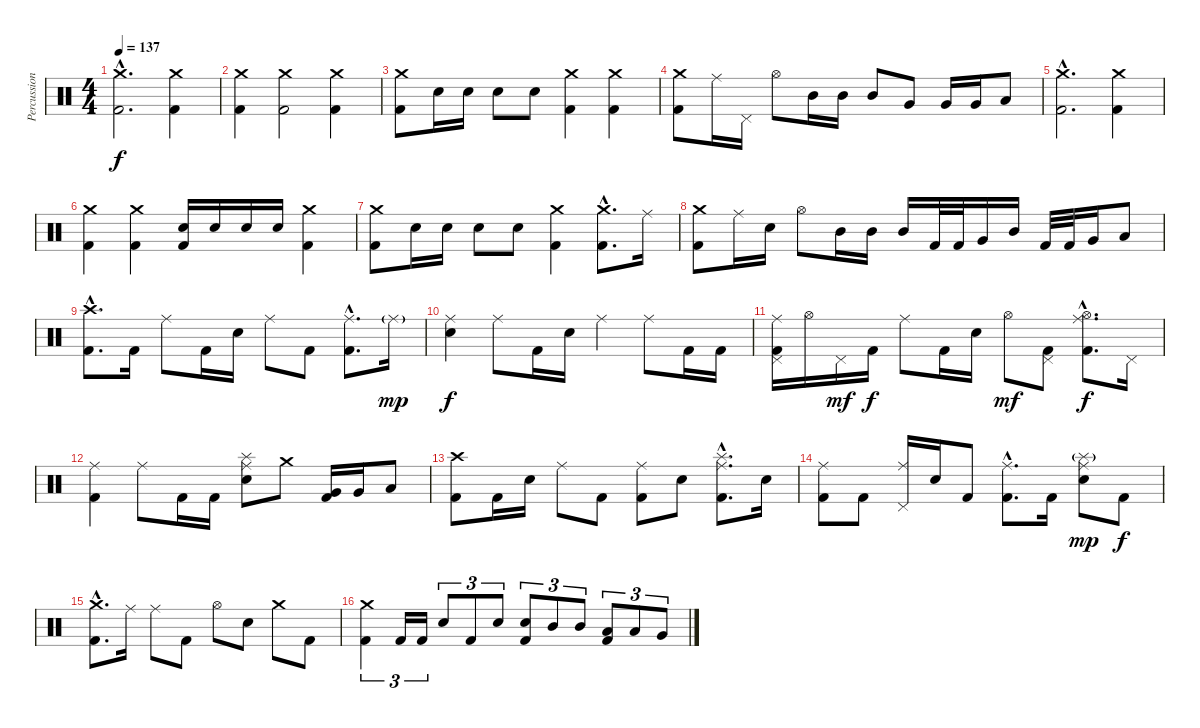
\track ("Percussion" "Percussion") {instrument percussion}
\staff {score}
\articulation defaults
\ts (4 4)
\tempo 137
\clef neutral
\ks c
("Crash medium (hit)"{hac} "Kick (hit) 2"{hac}).2{d dy f} ("Crash medium (hit)" "Kick (hit) 2").4 |
("Crash medium (hit)" "Kick (hit) 2").4 ("Crash medium (hit)" "Kick (hit) 2").2 ("Crash medium (hit)" "Kick (hit) 2").4 |
("Crash medium (hit)" "Kick (hit) 2").8 "Electric Snare (hit)".16 "Electric Snare (hit)".16 "Electric Snare (hit)".8 "Electric Snare (hit)".8 ("Crash medium (hit)" "Kick (hit) 2").4 ("Crash medium (hit)" "Kick (hit) 2").4 |
("Crash medium (hit)" "Kick (hit) 2").8 "Ride (middle)".16 "Pedal Hi-Hat (hit)".16 "Hi-Hat (open)".8 "Mid Tom (hit)".16 "Mid Tom (hit)".16 "Mid Tom (hit)".8 "Very Low Tom (hit)".8 "Very Low Tom (hit)".16 "Very Low Tom (hit)".16 "Low Floor Tom (hit)".8 |
("Crash medium (hit)"{hac} "Kick (hit) 2"{hac}).2{d} ("Crash medium (hit)" "Kick (hit) 2").4 |
("Crash medium (hit)" "Kick (hit) 2").4 ("Crash medium (hit)" "Kick (hit) 2").4 ("Electric Snare (hit)" "Kick (hit) 2").16 "Electric Snare (hit)".16 "Electric Snare (hit)".16 "Electric Snare (hit)".16 ("Crash medium (hit)" "Kick (hit) 2").4 |
("Crash medium (hit)" "Kick (hit) 2").8 "Electric Snare (hit)".16 "Electric Snare (hit)".16 "Electric Snare (hit)".8 "Electric Snare (hit)".8 ("Crash medium (hit)" "Kick (hit) 2").4 ("Crash medium (hit)"{hac} "Kick (hit) 2"{hac}).8{d} "Ride (middle)".16 |
("Crash medium (hit)" "Kick (hit) 2").8 "Ride (middle)".16 "Electric Snare (hit)".16 "Hi-Hat (open)".8 "Mid Tom (hit)".16 "Mid Tom (hit)".16 "Mid Tom (hit)".16 "Kick (hit) 2".32 "Kick (hit) 2".32 "Very Low Tom (hit)".16 "Mid Tom (hit)".16 "Kick (hit) 2".32 "Kick (hit) 2".32 "Very Low Tom (hit)".16 "Low Floor Tom (hit)".8 |
("Crash high (hit)"{hac} "Kick (hit) 2"{hac}).8{d} "Kick (hit) 2".16 "Ride (middle)".8 "Kick (hit) 2".16 "Electric Snare (hit)".16 "Ride (middle)".8 "Kick (hit) 2".8 ("Ride (middle)"{hac} "Kick (hit) 2"{hac}).8{d} "Ride (middle)"{g}.16{dy mp} |
("Ride (middle)" "Electric Snare (hit)").4{dy f} "Ride (middle)".8 "Kick (hit) 2".16 "Electric Snare (hit)".16 "Ride (middle)".4 "Ride (middle)".8 "Kick (hit) 2".16 "Kick (hit) 2".16 |
("Ride (middle)" "Pedal Hi-Hat (hit)" "Kick (hit) 2").16 "Hi-Hat (open)".16 "Pedal Hi-Hat (hit)".16{dy mf} "Kick (hit) 2".16{dy f} "Ride (middle)".8 "Kick (hit) 2".16 "Electric Snare (hit)".16 "Hi-Hat (open)".8{dy mf} ("Pedal Hi-Hat (hit)" "Kick (hit) 2").8 ("Ride (middle)"{hac} "Hi-Hat (open)"{hac} "Kick (hit) 2"{hac}).8{d dy f} "Pedal Hi-Hat (hit)".16 |
("Ride (middle)" "Kick (hit) 2").4 "Ride (middle)".8 "Kick (hit) 2".16 "Kick (hit) 2".16 ("Ride (middle)" "Splash (hit)" "Electric Snare (hit)").8 "Crash medium (hit)".8 ("Very Low Tom (hit)" "Kick (hit) 2").16 "Very Low Tom (hit)".16 "Low Floor Tom (hit)".8 |
("Crash high (hit)" "Kick (hit) 2").8 "Kick (hit) 2".16 "Electric Snare (hit)".16 "Ride (middle)".8 "Kick (hit) 2".8 ("Ride (middle)" "Kick (hit) 2").8 "Electric Snare (hit)".8 ("Ride (middle)"{hac} "Splash (hit)"{hac} "Kick (hit) 2"{hac}).8{d} "Electric Snare (hit)".16 |
("Ride (middle)" "Kick (hit) 2").8 "Kick (hit) 2".8 ("Ride (middle)" "Pedal Hi-Hat (hit)").16 "Electric Snare (hit)".16 "Kick (hit) 2".8 ("Ride (middle)"{hac} "Kick (hit) 2"{hac}).8{d} "Kick (hit) 2".16 ("Ride (middle)" "Splash (hit)"{g} "Electric Snare (hit)").8{dy mp} "Kick (hit) 2".8{dy f} |
("Crash medium (hit)"{hac} "Kick (hit) 2"{hac}).8{d} "Ride (middle)".16 "Ride (middle)".8 "Kick (hit) 2".8 "Hi-Hat (open)".8 "Electric Snare (hit)".8 "Crash medium (hit)".8 "Kick (hit) 2".8 |
("Crash medium (hit)" "Kick (hit) 2").4{tu (3 2)} "Kick (hit) 2".16{tu (3 2)} "Kick (hit) 2".16{tu (3 2)} "Electric Snare (hit)".8{tu (3 2)} "Kick (hit) 2".8{tu (3 2)} "Electric Snare (hit)".8{tu (3 2)} ("Electric Snare (hit)" "Kick (hit) 2").8{tu (3 2)} "Mid Tom (hit)".8{tu (3 2)} "Mid Tom (hit)".8{tu (3 2)} ("Low Tom (hit)" "Kick (hit) 2").8{tu (3 2)} "Low Tom (hit)".8{tu (3 2)} "Very Low Tom (hit)".8{tu (3 2)}
